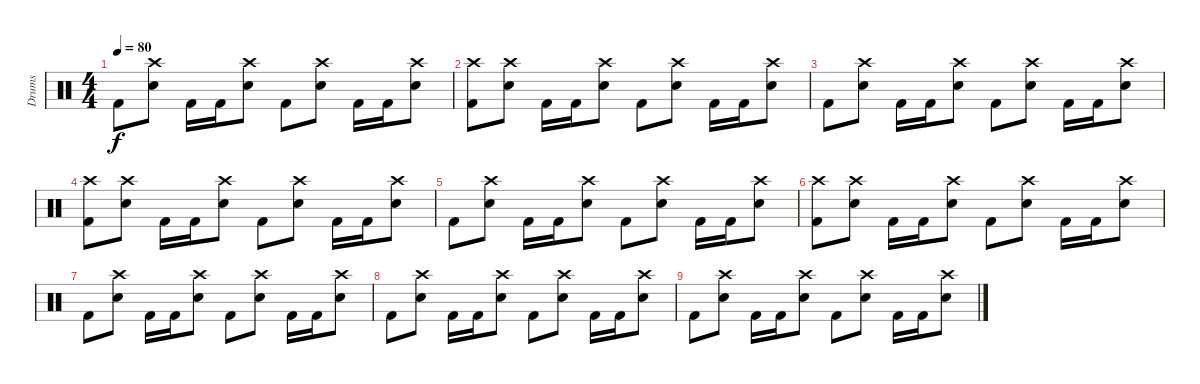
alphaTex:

\track ("Drums" "Drums") {instrument percussion}
\staff {score}
\articulation defaults
\ts (4 4)
\tempo 80
\clef neutral
\ks c "Kick (hit) 2".8{dy f}
("Snare (hit) 2" "Crash high (hit)").8 "Kick (hit) 2".16 "Kick (hit) 2".16 ("Snare (hit) 2" "Crash high (hit)").8 "Kick (hit) 2".8 ("Snare (hit) 2" "Crash high (hit)").8 "Kick (hit) 2".16 "Kick (hit) 2".16 ("Snare (hit) 2" "Crash high (hit)").8 |
("Kick (hit) 2" "Crash high (hit)").8 ("Snare (hit) 2" "Crash high (hit)").8 "Kick (hit) 2".16 "Kick (hit) 2".16 ("Snare (hit) 2" "Crash high (hit)").8 "Kick (hit) 2".8 ("Snare (hit) 2" "Crash high (hit)").8 "Kick (hit) 2".16 "Kick (hit) 2".16 ("Snare (hit) 2" "Crash high (hit)").8 |
"Kick (hit) 2".8 ("Snare (hit) 2" "Crash high (hit)").8 "Kick (hit) 2".16 "Kick (hit) 2".16 ("Snare (hit) 2" "Crash high (hit)").8 "Kick (hit) 2".8 ("Snare (hit) 2" "Crash high (hit)").8 "Kick (hit) 2".16 "Kick (hit) 2".16 ("Snare (hit) 2" "Crash high (hit)").8 |
("Kick (hit) 2" "Crash high (hit)").8 ("Snare (hit) 2" "Crash high (hit)").8 "Kick (hit) 2".16 "Kick (hit) 2".16 ("Snare (hit) 2" "Crash high (hit)").8 "Kick (hit) 2".8 ("Snare (hit) 2" "Crash high (hit)").8 "Kick (hit) 2".16 "Kick (hit) 2".16 ("Snare (hit) 2" "Crash high (hit)").8 |
"Kick (hit) 2".8 ("Snare (hit) 2" "Crash high (hit)").8 "Kick (hit) 2".16 "Kick (hit) 2".16 ("Snare (hit) 2" "Crash high (hit)").8 "Kick (hit) 2".8 ("Snare (hit) 2" "Crash high (hit)").8 "Kick (hit) 2".16 "Kick (hit) 2".16 ("Snare (hit) 2" "Crash high (hit)").8 |
("Kick (hit) 2" "Crash high (hit)").8 ("Snare (hit) 2" "Crash high (hit)").8 "Kick (hit) 2".16 "Kick (hit) 2".16 ("Snare (hit) 2" "Crash high (hit)").8 "Kick (hit) 2".8 ("Snare (hit) 2" "Crash high (hit)").8 "Kick (hit) 2".16 "Kick (hit) 2".16 ("Snare (hit) 2" "Crash high (hit)").8 |
"Kick (hit) 2".8 ("Snare (hit) 2" "Crash high (hit)").8 "Kick (hit) 2".16 "Kick (hit) 2".16 ("Snare (hit) 2" "Crash high (hit)").8 "Kick (hit) 2".8 ("Snare (hit) 2" "Crash high (hit)").8 "Kick (hit) 2".16 "Kick (hit) 2".16 ("Snare (hit) 2" "Crash high (hit)").8 |
"Kick (hit) 2".8 ("Snare (hit) 2" "Crash high (hit)").8 "Kick (hit) 2".16 "Kick (hit) 2".16 ("Snare (hit) 2" "Crash high (hit)").8 "Kick (hit) 2".8 ("Snare (hit) 2" "Crash high (hit)").8 "Kick (hit) 2".16 "Kick (hit) 2".16 ("Snare (hit) 2" "Crash high (hit)").8 |
"Kick (hit) 2".8 ("Snare (hit) 2" "Crash high (hit)").8 "Kick (hit) 2".16 "Kick (hit) 2".16 ("Snare (hit) 2" "Crash high (hit)").8 "Kick (hit) 2".8 ("Snare (hit) 2" "Crash high (hit)").8 "Kick (hit) 2".16 "Kick (hit) 2".16 ("Snare (hit) 2" "Crash high (hit)").8
